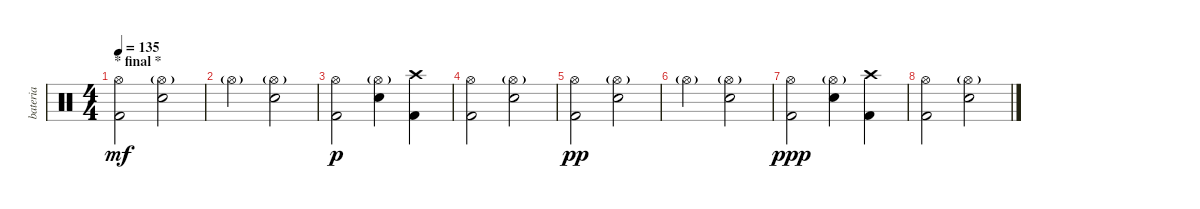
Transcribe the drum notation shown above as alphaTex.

\track ("bateria" "bateria") {instrument percussion}
\staff {score}
\articulation defaults
\ts (4 4)
\section ("" "* final *")
\tempo 135
\clef neutral
\ks c
("Hi-Hat (open)" "Kick (hit) 2").2{dy mf} ("Hi-Hat (open)"{g} "Snare (hit) 2").2 |
"Hi-Hat (open)"{g}.2 ("Hi-Hat (open)"{g} "Snare (hit) 2").2 |
("Hi-Hat (open)" "Kick (hit) 2").2{dy p} ("Hi-Hat (open)"{g} "Snare (hit) 2").4 ("Crash high (hit)" "Kick (hit) 2").4 |
("Hi-Hat (open)" "Kick (hit) 2").2 ("Hi-Hat (open)"{g} "Snare (hit) 2").2 |
("Hi-Hat (open)" "Kick (hit) 2").2{dy pp} ("Hi-Hat (open)"{g} "Snare (hit) 2").2 |
"Hi-Hat (open)"{g}.2 ("Hi-Hat (open)"{g} "Snare (hit) 2").2 |
("Hi-Hat (open)" "Kick (hit) 2").2{dy ppp} ("Hi-Hat (open)"{g} "Snare (hit) 2").4 ("Crash high (hit)" "Kick (hit) 2").4 |
("Hi-Hat (open)" "Kick (hit) 2").2 ("Hi-Hat (open)"{g} "Snare (hit) 2").2
